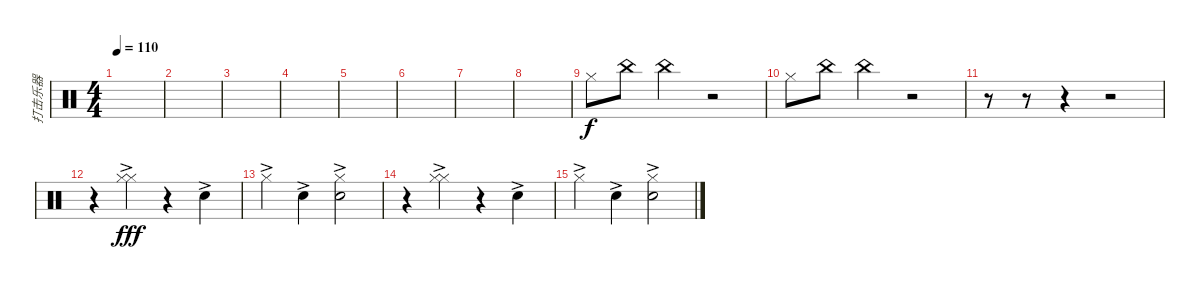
\track ("打击乐器" "打击乐器") {instrument percussion}
\staff {score}
\articulation defaults
\ts (4 4)
\tempo 110
\clef neutral
\ks c
|
|
|
|
|
|
|
|
"Hi-Hat (closed)".8{dy f} "China (hit)".8 "China (hit)".4 r.2 |
"Hi-Hat (closed)".8 "China (hit)".8 "China (hit)".4 r.2 |
r.8 r.8 r.4 r.2 |
r.4 ("Hi-Hat (closed)"{ac} "Hi-Hat (closed)"{ac}).4{dy fff} r.4 "Hand Clap (hit)"{ac}.4 |
"Hi-Hat (closed)"{ac}.4 "Hand Clap (hit)"{ac}.4 ("Hand Clap (hit)"{ac} "Hi-Hat (closed)"{ac}).2 |
r.4 ("Hi-Hat (closed)"{ac} "Hi-Hat (closed)"{ac}).4 r.4 "Hand Clap (hit)"{ac}.4 |
"Hi-Hat (closed)"{ac}.4 "Hand Clap (hit)"{ac}.4 ("Hand Clap (hit)"{ac} "Hi-Hat (closed)"{ac}).2
